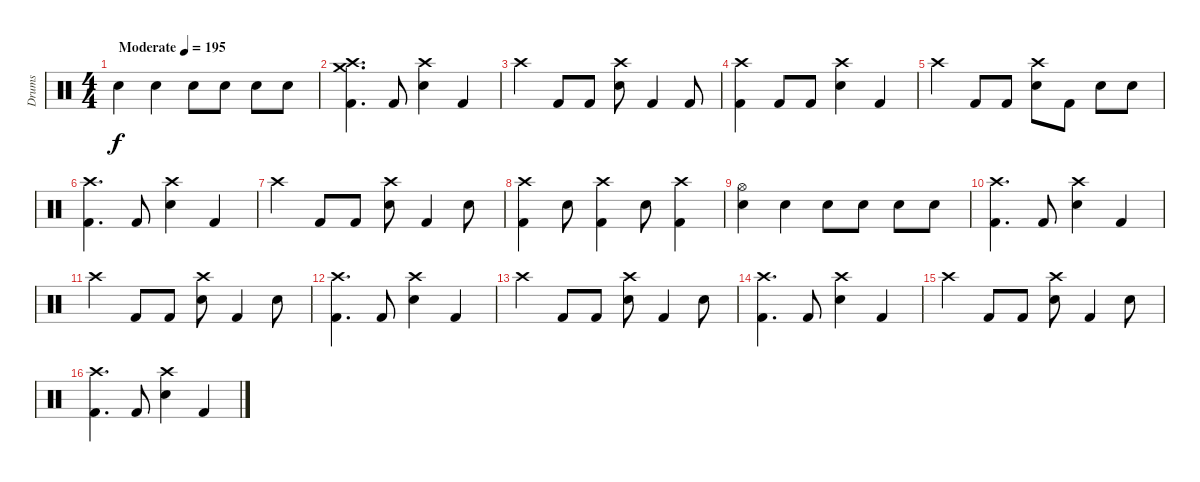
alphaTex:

\track ("Drums" "Drums") {instrument percussion}
\staff {score}
\articulation defaults
\ts (4 4)
\tempo (195 "Moderate")
\clef neutral
\ks c "Electric Snare (hit)".4{dy f} "Electric Snare (hit)".4 "Electric Snare (hit)".8 "Electric Snare (hit)".8 "Electric Snare (hit)".8 "Electric Snare (hit)".8
|
("Crash high (hit)" "Crash medium (hit)" "Kick (hit) 2").4{d} "Kick (hit) 2".8 ("Crash high (hit)" "Electric Snare (hit)").4 "Kick (hit) 2".4 |
"Crash high (hit)".4 "Kick (hit) 2".8 "Kick (hit) 2".8 ("Crash high (hit)" "Electric Snare (hit)").8 "Kick (hit) 2".4 "Kick (hit) 2".8 |
("Crash high (hit)" "Kick (hit) 2").4 "Kick (hit) 2".8 "Kick (hit) 2".8 ("Crash high (hit)" "Electric Snare (hit)").4 "Kick (hit) 2".4 |
"Crash high (hit)".4 "Kick (hit) 2".8 "Kick (hit) 2".8 ("Crash high (hit)" "Electric Snare (hit)").8 "Kick (hit) 2".8 "Electric Snare (hit)".8 "Electric Snare (hit)".8 |
("Crash high (hit)" "Kick (hit) 2").4{d} "Kick (hit) 2".8 ("Crash high (hit)" "Electric Snare (hit)").4 "Kick (hit) 2".4 |
"Crash high (hit)".4 "Kick (hit) 2".8 "Kick (hit) 2".8 ("Crash high (hit)" "Electric Snare (hit)").8 "Kick (hit) 2".4 "Electric Snare (hit)".8 |
("Crash high (hit)" "Kick (hit) 2").4 "Electric Snare (hit)".8 ("Crash high (hit)" "Kick (hit) 2").4 "Electric Snare (hit)".8 ("Crash high (hit)" "Kick (hit) 2").4 |
("Hi-Hat (open)" "Electric Snare (hit)").4 "Electric Snare (hit)".4 "Electric Snare (hit)".8 "Electric Snare (hit)".8 "Electric Snare (hit)".8 "Electric Snare (hit)".8 |
("Crash high (hit)" "Kick (hit) 2").4{d} "Kick (hit) 2".8 ("Crash high (hit)" "Electric Snare (hit)").4 "Kick (hit) 2".4 |
"Crash high (hit)".4 "Kick (hit) 2".8 "Kick (hit) 2".8 ("Crash high (hit)" "Electric Snare (hit)").8 "Kick (hit) 2".4 "Electric Snare (hit)".8 |
("Crash high (hit)" "Kick (hit) 2").4{d} "Kick (hit) 2".8 ("Crash high (hit)" "Electric Snare (hit)").4 "Kick (hit) 2".4 |
"Crash high (hit)".4 "Kick (hit) 2".8 "Kick (hit) 2".8 ("Crash high (hit)" "Electric Snare (hit)").8 "Kick (hit) 2".4 "Electric Snare (hit)".8 |
("Crash high (hit)" "Kick (hit) 2").4{d} "Kick (hit) 2".8 ("Crash high (hit)" "Electric Snare (hit)").4 "Kick (hit) 2".4 |
"Crash high (hit)".4 "Kick (hit) 2".8 "Kick (hit) 2".8 ("Crash high (hit)" "Electric Snare (hit)").8 "Kick (hit) 2".4 "Electric Snare (hit)".8 |
("Crash high (hit)" "Kick (hit) 2").4{d} "Kick (hit) 2".8 ("Crash high (hit)" "Electric Snare (hit)").4 "Kick (hit) 2".4
